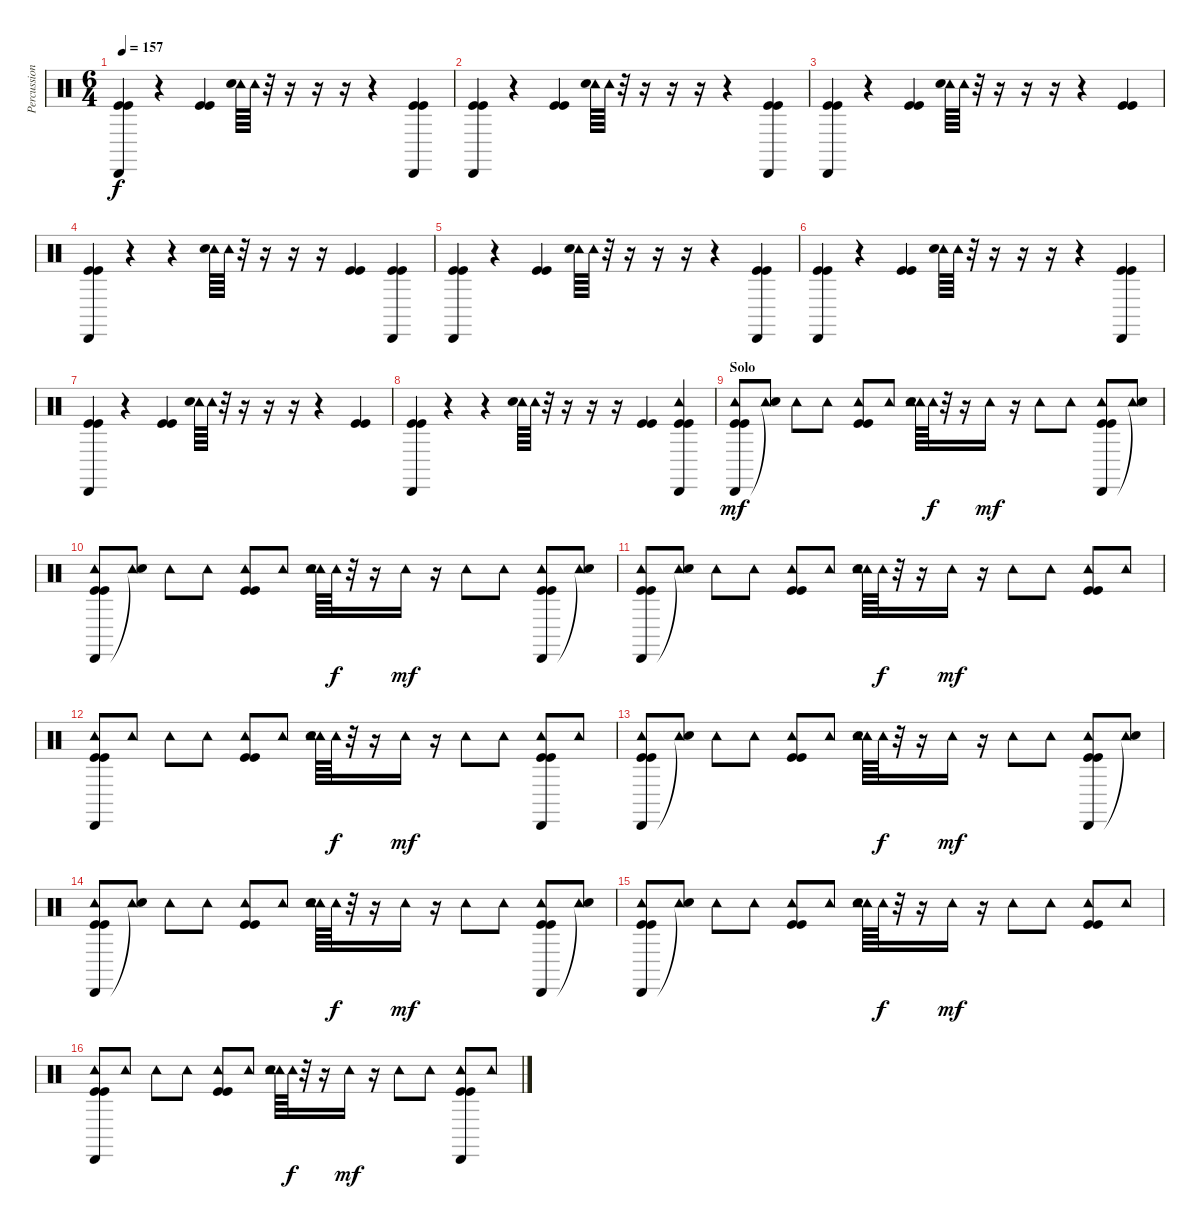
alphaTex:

\track ("Percussions" "Percussion") {instrument percussion}
\staff {score}
\articulation defaults
\ts (6 4)
\tempo 157
\clef neutral
\ks c
("Cabasa (hit)" "Kick (hit)" "Kick (hit)").4{dy f} r.4 ("Kick (hit)" "Kick (hit)").4 ("Tambourine (hit)" "Snare (hit) 2").64 "Tambourine (hit)".64 r.32 r.16 r.16 r.16 r.4 ("Cabasa (hit)" "Kick (hit)" "Kick (hit)").4 |
("Cabasa (hit)" "Kick (hit)" "Kick (hit)").4 r.4 ("Kick (hit)" "Kick (hit)").4 ("Tambourine (hit)" "Snare (hit) 2").64 "Tambourine (hit)".64 r.32 r.16 r.16 r.16 r.4 ("Cabasa (hit)" "Kick (hit)" "Kick (hit)").4 |
("Cabasa (hit)" "Kick (hit)" "Kick (hit)").4 r.4 ("Kick (hit)" "Kick (hit)").4 ("Tambourine (hit)" "Snare (hit) 2").64 "Tambourine (hit)".64 r.32 r.16 r.16 r.16 r.4 ("Kick (hit)" "Kick (hit)").4 |
("Cabasa (hit)" "Kick (hit)" "Kick (hit)").4 r.4 r.4 ("Tambourine (hit)" "Snare (hit) 2").64 "Tambourine (hit)".64 r.32 r.16 r.16 r.16 ("Kick (hit)" "Kick (hit)").4 ("Cabasa (hit)" "Kick (hit)" "Kick (hit)").4 |
("Cabasa (hit)" "Kick (hit)" "Kick (hit)").4 r.4 ("Kick (hit)" "Kick (hit)").4 ("Tambourine (hit)" "Snare (hit) 2").64 "Tambourine (hit)".64 r.32 r.16 r.16 r.16 r.4 ("Cabasa (hit)" "Kick (hit)" "Kick (hit)").4 |
("Cabasa (hit)" "Kick (hit)" "Kick (hit)").4 r.4 ("Kick (hit)" "Kick (hit)").4 ("Tambourine (hit)" "Snare (hit) 2").64 "Tambourine (hit)".64 r.32 r.16 r.16 r.16 r.4 ("Cabasa (hit)" "Kick (hit)" "Kick (hit)").4 |
("Cabasa (hit)" "Kick (hit)" "Kick (hit)").4 r.4 ("Kick (hit)" "Kick (hit)").4 ("Tambourine (hit)" "Snare (hit) 2").64 "Tambourine (hit)".64 r.32 r.16 r.16 r.16 r.4 ("Kick (hit)" "Kick (hit)").4 |
("Cabasa (hit)" "Kick (hit)" "Kick (hit)").4 r.4 r.4 ("Tambourine (hit)" "Snare (hit) 2").64 "Tambourine (hit)".64 r.32 r.16 r.16 r.16 ("Kick (hit)" "Kick (hit)").4 ("Tambourine (hit)" "Cabasa (hit)" "Kick (hit)" "Kick (hit)").4 |
\section ("" "Solo")
("Tambourine (hit)" "Cabasa (hit)" "Kick (hit)" "Kick (hit)").8{dy mf} ("Tambourine (hit)" "Snare (hit)"{t}).8 "Tambourine (hit)".8 "Tambourine (hit)".8 ("Tambourine (hit)" "Kick (hit)" "Kick (hit)").8 "Tambourine (hit)".8 ("Tambourine (hit)" "Tambourine (hit)" "Snare (hit) 2").64 "Tambourine (hit)".64{dy f} r.32 r.16 "Tambourine (hit)".16{dy mf} r.16 "Tambourine (hit)".8 "Tambourine (hit)".8 ("Tambourine (hit)" "Cabasa (hit)" "Kick (hit)" "Kick (hit)").8 ("Tambourine (hit)" "Snare (hit)"{t}).8 |
("Tambourine (hit)" "Cabasa (hit)" "Kick (hit)" "Kick (hit)").8 ("Tambourine (hit)" "Snare (hit)"{t}).8 "Tambourine (hit)".8 "Tambourine (hit)".8 ("Tambourine (hit)" "Kick (hit)" "Kick (hit)").8 "Tambourine (hit)".8 ("Tambourine (hit)" "Tambourine (hit)" "Snare (hit) 2").64 "Tambourine (hit)".64{dy f} r.32 r.16 "Tambourine (hit)".16{dy mf} r.16 "Tambourine (hit)".8 "Tambourine (hit)".8 ("Tambourine (hit)" "Cabasa (hit)" "Kick (hit)" "Kick (hit)").8 ("Tambourine (hit)" "Snare (hit)"{t}).8 |
("Tambourine (hit)" "Cabasa (hit)" "Kick (hit)" "Kick (hit)").8 ("Tambourine (hit)" "Snare (hit)"{t}).8 "Tambourine (hit)".8 "Tambourine (hit)".8 ("Tambourine (hit)" "Kick (hit)" "Kick (hit)").8 "Tambourine (hit)".8 ("Tambourine (hit)" "Tambourine (hit)" "Snare (hit) 2").64 "Tambourine (hit)".64{dy f} r.32 r.16 "Tambourine (hit)".16{dy mf} r.16 "Tambourine (hit)".8 "Tambourine (hit)".8 ("Tambourine (hit)" "Kick (hit)" "Kick (hit)").8 "Tambourine (hit)".8 |
("Tambourine (hit)" "Cabasa (hit)" "Kick (hit)" "Kick (hit)").8 "Tambourine (hit)".8 "Tambourine (hit)".8 "Tambourine (hit)".8 ("Tambourine (hit)" "Kick (hit)" "Kick (hit)").8 "Tambourine (hit)".8 ("Tambourine (hit)" "Tambourine (hit)" "Snare (hit) 2").64 "Tambourine (hit)".64{dy f} r.32 r.16 "Tambourine (hit)".16{dy mf} r.16 "Tambourine (hit)".8 "Tambourine (hit)".8 ("Tambourine (hit)" "Cabasa (hit)" "Kick (hit)" "Kick (hit)").8 "Tambourine (hit)".8 |
("Tambourine (hit)" "Cabasa (hit)" "Kick (hit)" "Kick (hit)").8 ("Tambourine (hit)" "Snare (hit)"{t}).8 "Tambourine (hit)".8 "Tambourine (hit)".8 ("Tambourine (hit)" "Kick (hit)" "Kick (hit)").8 "Tambourine (hit)".8 ("Tambourine (hit)" "Tambourine (hit)" "Snare (hit) 2").64 "Tambourine (hit)".64{dy f} r.32 r.16 "Tambourine (hit)".16{dy mf} r.16 "Tambourine (hit)".8 "Tambourine (hit)".8 ("Tambourine (hit)" "Cabasa (hit)" "Kick (hit)" "Kick (hit)").8 ("Tambourine (hit)" "Snare (hit)"{t}).8 |
("Tambourine (hit)" "Cabasa (hit)" "Kick (hit)" "Kick (hit)").8 ("Tambourine (hit)" "Snare (hit)"{t}).8 "Tambourine (hit)".8 "Tambourine (hit)".8 ("Tambourine (hit)" "Kick (hit)" "Kick (hit)").8 "Tambourine (hit)".8 ("Tambourine (hit)" "Tambourine (hit)" "Snare (hit) 2").64 "Tambourine (hit)".64{dy f} r.32 r.16 "Tambourine (hit)".16{dy mf} r.16 "Tambourine (hit)".8 "Tambourine (hit)".8 ("Tambourine (hit)" "Cabasa (hit)" "Kick (hit)" "Kick (hit)").8 ("Tambourine (hit)" "Snare (hit)"{t}).8 |
("Tambourine (hit)" "Cabasa (hit)" "Kick (hit)" "Kick (hit)").8 ("Tambourine (hit)" "Snare (hit)"{t}).8 "Tambourine (hit)".8 "Tambourine (hit)".8 ("Tambourine (hit)" "Kick (hit)" "Kick (hit)").8 "Tambourine (hit)".8 ("Tambourine (hit)" "Tambourine (hit)" "Snare (hit) 2").64 "Tambourine (hit)".64{dy f} r.32 r.16 "Tambourine (hit)".16{dy mf} r.16 "Tambourine (hit)".8 "Tambourine (hit)".8 ("Tambourine (hit)" "Kick (hit)" "Kick (hit)").8 "Tambourine (hit)".8 |
("Tambourine (hit)" "Cabasa (hit)" "Kick (hit)" "Kick (hit)").8 "Tambourine (hit)".8 "Tambourine (hit)".8 "Tambourine (hit)".8 ("Tambourine (hit)" "Kick (hit)" "Kick (hit)").8 "Tambourine (hit)".8 ("Tambourine (hit)" "Tambourine (hit)" "Snare (hit) 2").64 "Tambourine (hit)".64{dy f} r.32 r.16 "Tambourine (hit)".16{dy mf} r.16 "Tambourine (hit)".8 "Tambourine (hit)".8 ("Tambourine (hit)" "Cabasa (hit)" "Kick (hit)" "Kick (hit)").8 "Tambourine (hit)".8
